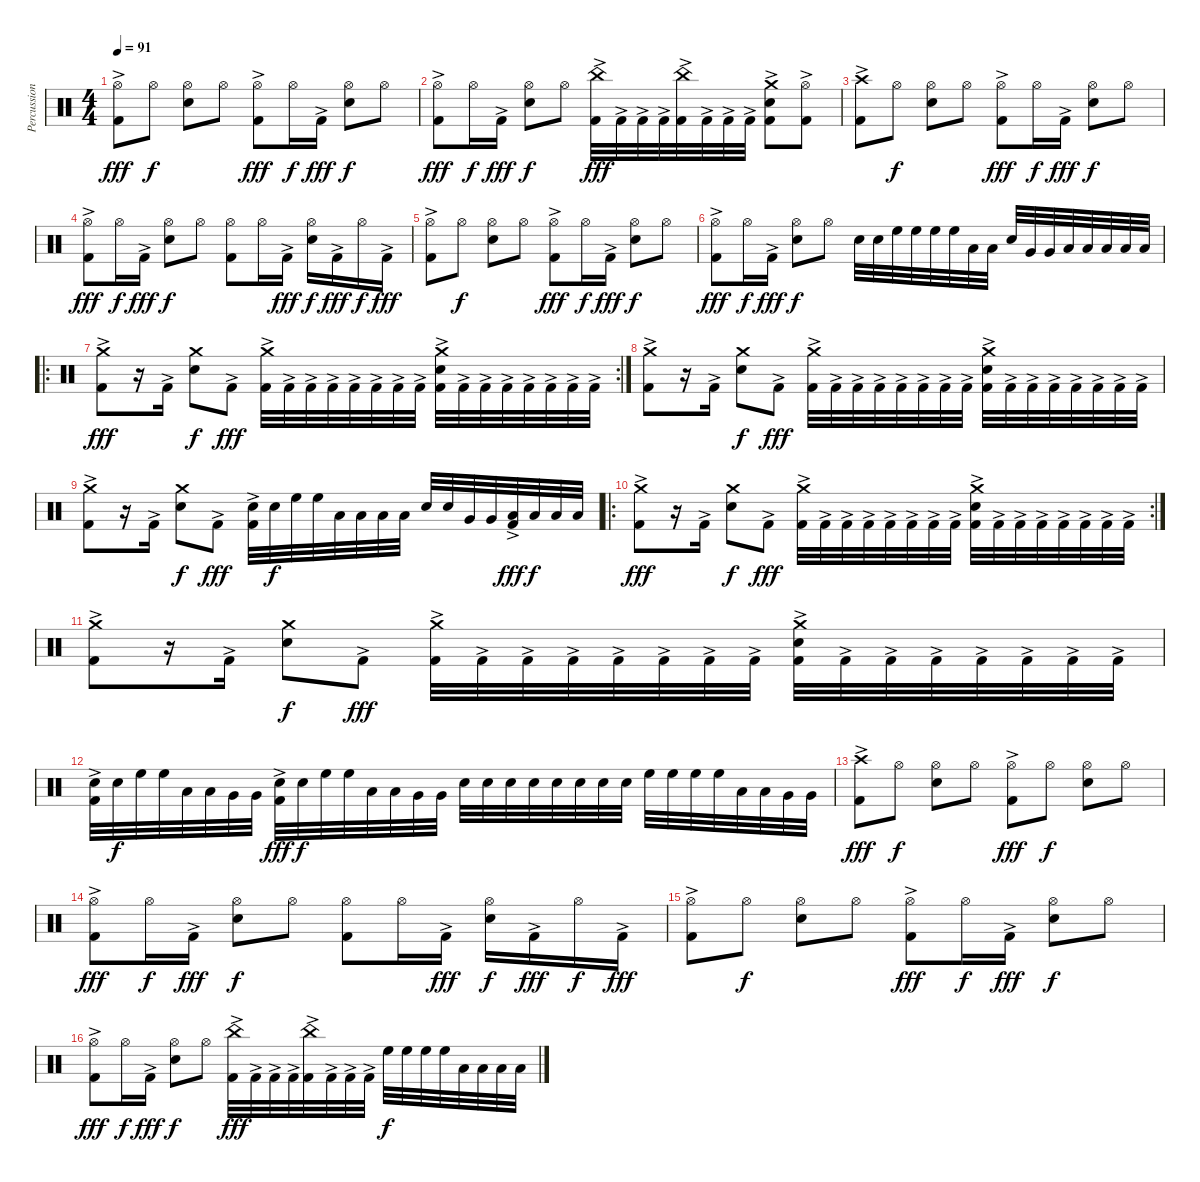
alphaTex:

\track ("Percussion" "Percussion") {instrument percussion}
\staff {score}
\articulation defaults
\ts (4 4)
\tempo 91
\clef neutral
\ks c
("Hi-Hat (open)" "Kick (hit) 2"{ac}).8{dy fff} "Hi-Hat (open)".8{dy f} ("Hi-Hat (open)" "Electric Snare (hit)").8 "Hi-Hat (open)".8 ("Hi-Hat (open)" "Kick (hit) 2"{ac}).8{dy fff} "Hi-Hat (open)".16{dy f} "Kick (hit) 2"{ac}.16{dy fff} ("Hi-Hat (open)" "Electric Snare (hit)").8{dy f} "Hi-Hat (open)".8 |
("Hi-Hat (open)" "Kick (hit) 2"{ac}).8{dy fff} "Hi-Hat (open)".16{dy f} "Kick (hit) 2"{ac}.16{dy fff} ("Hi-Hat (open)" "Electric Snare (hit)").8{dy f} "Hi-Hat (open)".8 ("China (hit)" "Kick (hit) 2"{ac}).32{dy fff} "Kick (hit) 2"{ac}.32 "Kick (hit) 2"{ac}.32 "Kick (hit) 2"{ac}.32 ("China (hit)" "Kick (hit) 2"{ac}).32 "Kick (hit) 2"{ac}.32 "Kick (hit) 2"{ac}.32 "Kick (hit) 2"{ac}.32 ("Crash medium (hit)" "Electric Snare (hit)" "Kick (hit) 2"{ac}).8 ("Hi-Hat (open)" "Kick (hit) 2"{ac}).8 |
("Crash high (hit)" "Kick (hit) 2"{ac}).8 "Hi-Hat (open)".8{dy f} ("Hi-Hat (open)" "Electric Snare (hit)").8 "Hi-Hat (open)".8 ("Hi-Hat (open)" "Kick (hit) 2"{ac}).8{dy fff} "Hi-Hat (open)".16{dy f} "Kick (hit) 2"{ac}.16{dy fff} ("Hi-Hat (open)" "Electric Snare (hit)").8{dy f} "Hi-Hat (open)".8 |
("Hi-Hat (open)" "Kick (hit) 2"{ac}).8{dy fff} "Hi-Hat (open)".16{dy f} "Kick (hit) 2"{ac}.16{dy fff} ("Hi-Hat (open)" "Electric Snare (hit)").8{dy f} "Hi-Hat (open)".8 ("Hi-Hat (open)" "Kick (hit) 2").8 "Hi-Hat (open)".16 "Kick (hit) 2"{ac}.16{dy fff} ("Hi-Hat (open)" "Electric Snare (hit)").16{dy f} "Kick (hit) 2"{ac}.16{dy fff} "Hi-Hat (open)".16{dy f} "Kick (hit) 2"{ac}.16{dy fff} |
("Hi-Hat (open)" "Kick (hit) 2"{ac}).8 "Hi-Hat (open)".8{dy f} ("Hi-Hat (open)" "Electric Snare (hit)").8 "Hi-Hat (open)".8 ("Hi-Hat (open)" "Kick (hit) 2"{ac}).8{dy fff} "Hi-Hat (open)".16{dy f} "Kick (hit) 2"{ac}.16{dy fff} ("Hi-Hat (open)" "Electric Snare (hit)").8{dy f} "Hi-Hat (open)".8 |
("Hi-Hat (open)" "Kick (hit) 2"{ac}).8{dy fff} "Hi-Hat (open)".16{dy f} "Kick (hit) 2"{ac}.16{dy fff} ("Hi-Hat (open)" "Electric Snare (hit)").8{dy f} "Hi-Hat (open)".8 "Electric Snare (hit)".32 "Electric Snare (hit)".32 "High Floor Tom (hit)".32 "High Floor Tom (hit)".32 "High Floor Tom (hit)".32 "High Floor Tom (hit)".32 "Low Tom (hit)".32 "Low Tom (hit)".32 "Electric Snare (hit)".32 "Very Low Tom (hit)".32 "Very Low Tom (hit)".32 "Low Floor Tom (hit)".32 "Low Floor Tom (hit)".32 "Low Floor Tom (hit)".32 "Low Floor Tom (hit)".32 "Low Floor Tom (hit)".32 |
\ro
\rc 2
("Crash medium (hit)" "Kick (hit) 2"{ac}).8{dy fff} r.16 "Kick (hit) 2"{ac}.16 ("Crash medium (hit)" "Electric Snare (hit)").8{dy f} "Kick (hit) 2"{ac}.8{dy fff} ("Crash medium (hit)" "Kick (hit) 2"{ac}).32 "Kick (hit) 2"{ac}.32 "Kick (hit) 2"{ac}.32 "Kick (hit) 2"{ac}.32 "Kick (hit) 2"{ac}.32 "Kick (hit) 2"{ac}.32 "Kick (hit) 2"{ac}.32 "Kick (hit) 2"{ac}.32 ("Crash medium (hit)" "Electric Snare (hit)" "Kick (hit) 2"{ac}).32 "Kick (hit) 2"{ac}.32 "Kick (hit) 2"{ac}.32 "Kick (hit) 2"{ac}.32 "Kick (hit) 2"{ac}.32 "Kick (hit) 2"{ac}.32 "Kick (hit) 2"{ac}.32 "Kick (hit) 2"{ac}.32 |
("Crash medium (hit)" "Kick (hit) 2"{ac}).8 r.16 "Kick (hit) 2"{ac}.16 ("Crash medium (hit)" "Electric Snare (hit)").8{dy f} "Kick (hit) 2"{ac}.8{dy fff} ("Crash medium (hit)" "Kick (hit) 2"{ac}).32 "Kick (hit) 2"{ac}.32 "Kick (hit) 2"{ac}.32 "Kick (hit) 2"{ac}.32 "Kick (hit) 2"{ac}.32 "Kick (hit) 2"{ac}.32 "Kick (hit) 2"{ac}.32 "Kick (hit) 2"{ac}.32 ("Crash medium (hit)" "Electric Snare (hit)" "Kick (hit) 2"{ac}).32 "Kick (hit) 2"{ac}.32 "Kick (hit) 2"{ac}.32 "Kick (hit) 2"{ac}.32 "Kick (hit) 2"{ac}.32 "Kick (hit) 2"{ac}.32 "Kick (hit) 2"{ac}.32 "Kick (hit) 2"{ac}.32 |
("Crash medium (hit)" "Kick (hit) 2"{ac}).8 r.16 "Kick (hit) 2"{ac}.16 ("Crash medium (hit)" "Electric Snare (hit)").8{dy f} "Kick (hit) 2"{ac}.8{dy fff} ("Electric Snare (hit)" "Kick (hit) 2"{ac}).32 "Electric Snare (hit)".32{dy f} "High Floor Tom (hit)".32 "High Floor Tom (hit)".32 "Low Tom (hit)".32 "Low Tom (hit)".32 "Low Tom (hit)".32 "Low Tom (hit)".32 "Electric Snare (hit)".32 "Electric Snare (hit)".32 "Very Low Tom (hit)".32 "Very Low Tom (hit)".32 ("Low Floor Tom (hit)" "Kick (hit) 2"{ac}).32{dy fff} "Low Floor Tom (hit)".32{dy f} "Low Floor Tom (hit)".32 "Low Floor Tom (hit)".32 |
\ro
\rc 2
("Crash medium (hit)" "Kick (hit) 2"{ac}).8{dy fff} r.16 "Kick (hit) 2"{ac}.16 ("Crash medium (hit)" "Electric Snare (hit)").8{dy f} "Kick (hit) 2"{ac}.8{dy fff} ("Crash medium (hit)" "Kick (hit) 2"{ac}).32 "Kick (hit) 2"{ac}.32 "Kick (hit) 2"{ac}.32 "Kick (hit) 2"{ac}.32 "Kick (hit) 2"{ac}.32 "Kick (hit) 2"{ac}.32 "Kick (hit) 2"{ac}.32 "Kick (hit) 2"{ac}.32 ("Crash medium (hit)" "Electric Snare (hit)" "Kick (hit) 2"{ac}).32 "Kick (hit) 2"{ac}.32 "Kick (hit) 2"{ac}.32 "Kick (hit) 2"{ac}.32 "Kick (hit) 2"{ac}.32 "Kick (hit) 2"{ac}.32 "Kick (hit) 2"{ac}.32 "Kick (hit) 2"{ac}.32 |
("Crash medium (hit)" "Kick (hit) 2"{ac}).8 r.16 "Kick (hit) 2"{ac}.16 ("Crash medium (hit)" "Electric Snare (hit)").8{dy f} "Kick (hit) 2"{ac}.8{dy fff} ("Crash medium (hit)" "Kick (hit) 2"{ac}).32 "Kick (hit) 2"{ac}.32 "Kick (hit) 2"{ac}.32 "Kick (hit) 2"{ac}.32 "Kick (hit) 2"{ac}.32 "Kick (hit) 2"{ac}.32 "Kick (hit) 2"{ac}.32 "Kick (hit) 2"{ac}.32 ("Crash medium (hit)" "Electric Snare (hit)" "Kick (hit) 2"{ac}).32 "Kick (hit) 2"{ac}.32 "Kick (hit) 2"{ac}.32 "Kick (hit) 2"{ac}.32 "Kick (hit) 2"{ac}.32 "Kick (hit) 2"{ac}.32 "Kick (hit) 2"{ac}.32 "Kick (hit) 2"{ac}.32 |
("Electric Snare (hit)" "Kick (hit) 2"{ac}).32 "Electric Snare (hit)".32{dy f} "High Floor Tom (hit)".32 "High Floor Tom (hit)".32 "Low Tom (hit)".32 "Low Tom (hit)".32 "Very Low Tom (hit)".32 "Very Low Tom (hit)".32 ("Electric Snare (hit)" "Kick (hit) 2"{ac}).32{dy fff} "Electric Snare (hit)".32{dy f} "High Floor Tom (hit)".32 "High Floor Tom (hit)".32 "Low Tom (hit)".32 "Low Tom (hit)".32 "Very Low Tom (hit)".32 "Very Low Tom (hit)".32 "Electric Snare (hit)".32 "Electric Snare (hit)".32 "Electric Snare (hit)".32 "Electric Snare (hit)".32 "Electric Snare (hit)".32 "Electric Snare (hit)".32 "Electric Snare (hit)".32 "Electric Snare (hit)".32 "High Floor Tom (hit)".32 "High Floor Tom (hit)".32 "High Floor Tom (hit)".32 "High Floor Tom (hit)".32 "Low Tom (hit)".32 "Low Tom (hit)".32 "Very Low Tom (hit)".32 "Very Low Tom (hit)".32 |
("Crash high (hit)" "Kick (hit) 2"{ac}).8{dy fff} "Hi-Hat (open)".8{dy f} ("Hi-Hat (open)" "Electric Snare (hit)").8 "Hi-Hat (open)".8 ("Hi-Hat (open)" "Kick (hit) 2"{ac}).8{dy fff} "Hi-Hat (open)".8{dy f} ("Hi-Hat (open)" "Electric Snare (hit)").8 "Hi-Hat (open)".8 |
("Hi-Hat (open)" "Kick (hit) 2"{ac}).8{dy fff} "Hi-Hat (open)".16{dy f} "Kick (hit) 2"{ac}.16{dy fff} ("Hi-Hat (open)" "Electric Snare (hit)").8{dy f} "Hi-Hat (open)".8 ("Hi-Hat (open)" "Kick (hit) 2").8 "Hi-Hat (open)".16 "Kick (hit) 2"{ac}.16{dy fff} ("Hi-Hat (open)" "Electric Snare (hit)").16{dy f} "Kick (hit) 2"{ac}.16{dy fff} "Hi-Hat (open)".16{dy f} "Kick (hit) 2"{ac}.16{dy fff} |
("Hi-Hat (open)" "Kick (hit) 2"{ac}).8 "Hi-Hat (open)".8{dy f} ("Hi-Hat (open)" "Electric Snare (hit)").8 "Hi-Hat (open)".8 ("Hi-Hat (open)" "Kick (hit) 2"{ac}).8{dy fff} "Hi-Hat (open)".16{dy f} "Kick (hit) 2"{ac}.16{dy fff} ("Hi-Hat (open)" "Electric Snare (hit)").8{dy f} "Hi-Hat (open)".8 |
("Hi-Hat (open)" "Kick (hit) 2"{ac}).8{dy fff} "Hi-Hat (open)".16{dy f} "Kick (hit) 2"{ac}.16{dy fff} ("Hi-Hat (open)" "Electric Snare (hit)").8{dy f} "Hi-Hat (open)".8 ("China (hit)" "Kick (hit) 2"{ac}).32{dy fff} "Kick (hit) 2"{ac}.32 "Kick (hit) 2"{ac}.32 "Kick (hit) 2"{ac}.32 ("China (hit)" "Kick (hit) 2"{ac}).32 "Kick (hit) 2"{ac}.32 "Kick (hit) 2"{ac}.32 "Kick (hit) 2"{ac}.32 "High Floor Tom (hit)".32{dy f} "High Floor Tom (hit)".32 "High Floor Tom (hit)".32 "High Floor Tom (hit)".32 "Low Tom (hit)".32 "Low Tom (hit)".32 "Low Tom (hit)".32 "Low Tom (hit)".32
